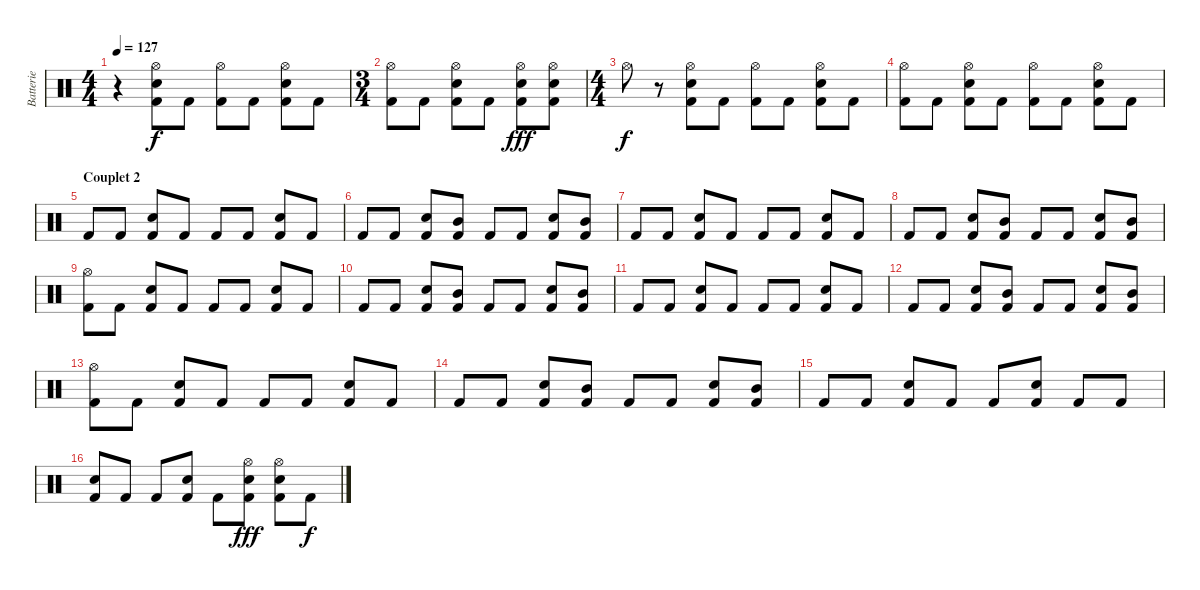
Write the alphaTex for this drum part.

\track ("Batterie" "Batterie") {instrument percussion}
\staff {score}
\articulation defaults
\ts (4 4)
\tempo 127
\clef neutral
\ks c
r.4{dy f} ("Hi-Hat (open)" "Electric Snare (hit)" "Kick (hit) 2").8 "Kick (hit) 2".8 ("Hi-Hat (open)" "Kick (hit) 2").8 "Kick (hit) 2".8 ("Hi-Hat (open)" "Electric Snare (hit)" "Kick (hit) 2").8 "Kick (hit) 2".8 |
\ts (3 4)
("Hi-Hat (open)" "Kick (hit) 2").8 "Kick (hit) 2".8 ("Hi-Hat (open)" "Electric Snare (hit)" "Kick (hit) 2").8 "Kick (hit) 2".8 ("Hi-Hat (open)" "Electric Snare (hit)" "Kick (hit) 2").8{dy fff} ("Hi-Hat (open)" "Electric Snare (hit)" "Kick (hit) 2").8 |
\ts (4 4)
"Hi-Hat (open)".8{dy f} r.8 ("Hi-Hat (open)" "Electric Snare (hit)" "Kick (hit) 2").8 "Kick (hit) 2".8 ("Hi-Hat (open)" "Kick (hit) 2").8 "Kick (hit) 2".8 ("Hi-Hat (open)" "Electric Snare (hit)" "Kick (hit) 2").8 "Kick (hit) 2".8 |
("Hi-Hat (open)" "Kick (hit) 2").8 "Kick (hit) 2".8 ("Hi-Hat (open)" "Electric Snare (hit)" "Kick (hit) 2").8 "Kick (hit) 2".8 ("Hi-Hat (open)" "Kick (hit) 2").8 "Kick (hit) 2".8 ("Hi-Hat (open)" "Electric Snare (hit)" "Kick (hit) 2").8 "Kick (hit) 2".8 |
\section ("" "Couplet 2")
"Kick (hit) 2".8{volume 14} "Kick (hit) 2".8 ("Electric Snare (hit)" "Kick (hit) 2").8 "Kick (hit) 2".8 "Kick (hit) 2".8 "Kick (hit) 2".8 ("Electric Snare (hit)" "Kick (hit) 2").8 "Kick (hit) 2".8 |
"Kick (hit) 2".8 "Kick (hit) 2".8 ("Electric Snare (hit)" "Kick (hit) 2").8 ("Mid Tom (hit)" "Kick (hit) 2").8 "Kick (hit) 2".8 "Kick (hit) 2".8 ("Electric Snare (hit)" "Kick (hit) 2").8 ("Mid Tom (hit)" "Kick (hit) 2").8 |
"Kick (hit) 2".8 "Kick (hit) 2".8 ("Electric Snare (hit)" "Kick (hit) 2").8 "Kick (hit) 2".8 "Kick (hit) 2".8 "Kick (hit) 2".8 ("Electric Snare (hit)" "Kick (hit) 2").8 "Kick (hit) 2".8 |
"Kick (hit) 2".8 "Kick (hit) 2".8 ("Electric Snare (hit)" "Kick (hit) 2").8 ("Mid Tom (hit)" "Kick (hit) 2").8 "Kick (hit) 2".8 "Kick (hit) 2".8 ("Electric Snare (hit)" "Kick (hit) 2").8 ("Mid Tom (hit)" "Kick (hit) 2").8 |
("Hi-Hat (open)" "Kick (hit) 2").8 "Kick (hit) 2".8 ("Electric Snare (hit)" "Kick (hit) 2").8 "Kick (hit) 2".8 "Kick (hit) 2".8 "Kick (hit) 2".8 ("Electric Snare (hit)" "Kick (hit) 2").8 "Kick (hit) 2".8 |
"Kick (hit) 2".8 "Kick (hit) 2".8 ("Electric Snare (hit)" "Kick (hit) 2").8 ("Mid Tom (hit)" "Kick (hit) 2").8 "Kick (hit) 2".8 "Kick (hit) 2".8 ("Electric Snare (hit)" "Kick (hit) 2").8 ("Mid Tom (hit)" "Kick (hit) 2").8 |
"Kick (hit) 2".8 "Kick (hit) 2".8 ("Electric Snare (hit)" "Kick (hit) 2").8 "Kick (hit) 2".8 "Kick (hit) 2".8 "Kick (hit) 2".8 ("Electric Snare (hit)" "Kick (hit) 2").8 "Kick (hit) 2".8 |
"Kick (hit) 2".8 "Kick (hit) 2".8 ("Electric Snare (hit)" "Kick (hit) 2").8 ("Mid Tom (hit)" "Kick (hit) 2").8 "Kick (hit) 2".8 "Kick (hit) 2".8 ("Electric Snare (hit)" "Kick (hit) 2").8 ("Mid Tom (hit)" "Kick (hit) 2").8 |
("Hi-Hat (open)" "Kick (hit) 2").8 "Kick (hit) 2".8 ("Electric Snare (hit)" "Kick (hit) 2").8 "Kick (hit) 2".8 "Kick (hit) 2".8 "Kick (hit) 2".8 ("Electric Snare (hit)" "Kick (hit) 2").8 "Kick (hit) 2".8 |
"Kick (hit) 2".8 "Kick (hit) 2".8 ("Electric Snare (hit)" "Kick (hit) 2").8 ("Mid Tom (hit)" "Kick (hit) 2").8 "Kick (hit) 2".8 "Kick (hit) 2".8 ("Electric Snare (hit)" "Kick (hit) 2").8 ("Mid Tom (hit)" "Kick (hit) 2").8 |
"Kick (hit) 2".8 "Kick (hit) 2".8 ("Electric Snare (hit)" "Kick (hit) 2").8 "Kick (hit) 2".8 "Kick (hit) 2".8 ("Electric Snare (hit)" "Kick (hit) 2").8 "Kick (hit) 2".8 "Kick (hit) 2".8 |
("Electric Snare (hit)" "Kick (hit) 2").8{volume 16} "Kick (hit) 2".8 "Kick (hit) 2".8 ("Electric Snare (hit)" "Kick (hit) 2").8 "Kick (hit) 2".8 ("Hi-Hat (open)" "Electric Snare (hit)" "Kick (hit) 2").8{dy fff} ("Hi-Hat (open)" "Electric Snare (hit)" "Kick (hit) 2").8 "Kick (hit) 2".8{dy f}
